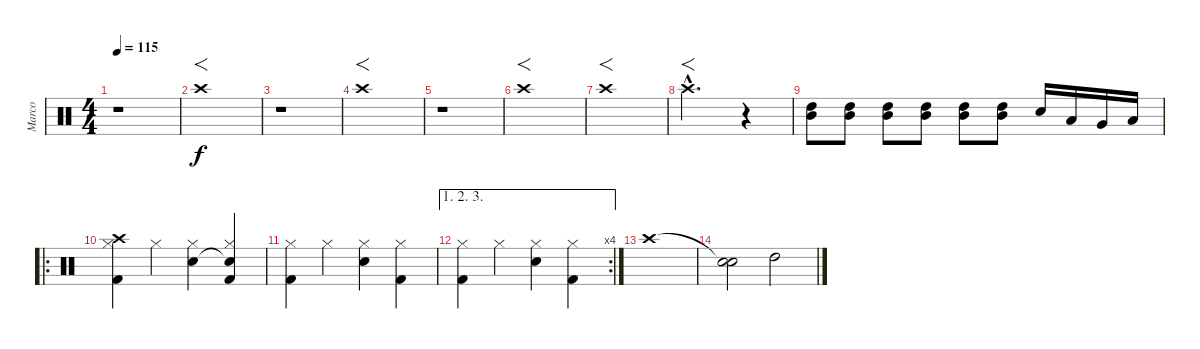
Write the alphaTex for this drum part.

\track ("Marco" "Marco") {instrument percussion}
\staff {score}
\articulation defaults
\ts (4 4)
\tempo 115
\clef neutral
\ks c
r.1{dy f} |
"Crash high (hit)".1{f} |
r.1 |
"Crash high (hit)".1{f} |
r.1 |
"Crash high (hit)".1{f} |
"Crash high (hit)".1{f} |
"Crash high (hit)"{hac}.2{f d} r.4{volume 4} |
("Mid Tom (hit)" "High Tom (hit)").8{volume 14} ("Mid Tom (hit)" "High Tom (hit)").8 ("Mid Tom (hit)" "High Tom (hit)").8 ("Mid Tom (hit)" "High Tom (hit)").8 ("Mid Tom (hit)" "High Tom (hit)").8 ("Mid Tom (hit)" "High Tom (hit)").8 "Snare (hit) 2".16 "Low Tom (hit)".16 "Very Low Tom (hit)".16 "Low Floor Tom (hit)".16 |
\ro
("Hi-Hat (closed)" "Crash high (hit)" "Kick (hit) 2").4 "Hi-Hat (closed)".4 ("Hi-Hat (closed)" "Snare (hit) 2").4 ("Hi-Hat (closed)" "Snare (hit)"{t} "Kick (hit) 2").4 |
("Hi-Hat (closed)" "Kick (hit) 2").4 "Hi-Hat (closed)".4 ("Hi-Hat (closed)" "Snare (hit) 2").4 ("Hi-Hat (closed)" "Kick (hit) 2").4 |
\ae (1 2 3)
\rc 4
("Hi-Hat (closed)" "Kick (hit) 2").4 "Hi-Hat (closed)".4 ("Hi-Hat (closed)" "Snare (hit) 2").4 ("Hi-Hat (closed)" "Kick (hit) 2").4 |
"Crash high (hit)".1 |
("Snare (hit)"{t} "Snare (hit) 2").2 "High Tom (hit)".2
